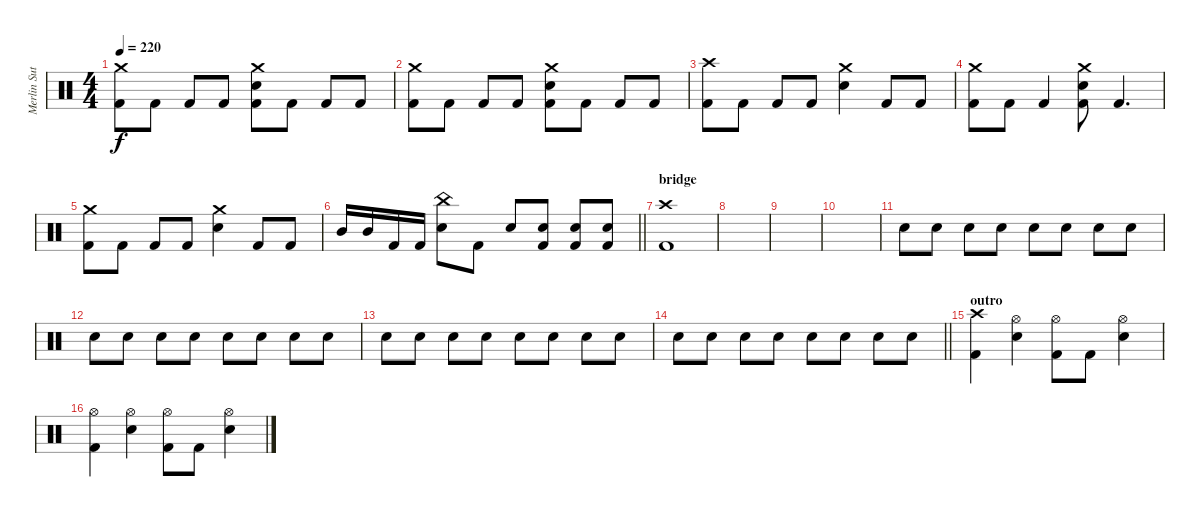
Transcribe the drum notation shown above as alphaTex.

\track ("Merlin Sutter" "Merlin Sut") {instrument percussion}
\staff {score}
\articulation defaults
\ts (4 4)
\tempo 220
\clef neutral
\ks c
("Crash medium (hit)" "Kick (hit) 2").8{dy f} "Kick (hit) 2".8 "Kick (hit) 2".8 "Kick (hit) 2".8 ("Crash medium (hit)" "Snare (hit) 2" "Kick (hit) 2").8 "Kick (hit) 2".8 "Kick (hit) 2".8 "Kick (hit) 2".8 |
("Crash medium (hit)" "Kick (hit) 2").8 "Kick (hit) 2".8 "Kick (hit) 2".8 "Kick (hit) 2".8 ("Crash medium (hit)" "Snare (hit) 2" "Kick (hit) 2").8 "Kick (hit) 2".8 "Kick (hit) 2".8 "Kick (hit) 2".8 |
("Crash high (hit)" "Kick (hit) 2").8 "Kick (hit) 2".8 "Kick (hit) 2".8 "Kick (hit) 2".8 ("Crash medium (hit)" "Snare (hit) 2").4 "Kick (hit) 2".8 "Kick (hit) 2".8 |
("Crash medium (hit)" "Kick (hit) 2").8 "Kick (hit) 2".8 "Kick (hit) 2".4 ("Crash medium (hit)" "Snare (hit) 2" "Kick (hit) 2").8 "Kick (hit) 2".4{d} |
("Crash medium (hit)" "Kick (hit) 2").8 "Kick (hit) 2".8 "Kick (hit) 2".8 "Kick (hit) 2".8 ("Crash medium (hit)" "Snare (hit) 2").4 "Kick (hit) 2".8 "Kick (hit) 2".8 |
\barLineRight lightlight "Mid Tom (hit)".16 "Mid Tom (hit)".16 "Kick (hit) 2".16 "Kick (hit) 2".16
("China (hit)" "Snare (hit) 2").8 "Kick (hit) 2".8 "Snare (hit) 2".8 ("Snare (hit) 2" "Kick (hit) 2").8 ("Snare (hit) 2" "Kick (hit) 2").8 ("Snare (hit) 2" "Kick (hit) 2").8 |
\section ("" "bridge")
("Crash high (hit)" "Kick (hit) 2").1 |
|
|
|
"Snare (hit) 2".8{volume 16} "Snare (hit) 2".8 "Snare (hit) 2".8 "Snare (hit) 2".8 "Snare (hit) 2".8 "Snare (hit) 2".8 "Snare (hit) 2".8 "Snare (hit) 2".8 |
"Snare (hit) 2".8 "Snare (hit) 2".8 "Snare (hit) 2".8 "Snare (hit) 2".8 "Snare (hit) 2".8 "Snare (hit) 2".8 "Snare (hit) 2".8 "Snare (hit) 2".8 |
"Snare (hit) 2".8 "Snare (hit) 2".8 "Snare (hit) 2".8 "Snare (hit) 2".8 "Snare (hit) 2".8 "Snare (hit) 2".8 "Snare (hit) 2".8 "Snare (hit) 2".8 |
\barLineRight lightlight "Snare (hit) 2".8 "Snare (hit) 2".8 "Snare (hit) 2".8 "Snare (hit) 2".8 "Snare (hit) 2".8 "Snare (hit) 2".8 "Snare (hit) 2".8 "Snare (hit) 2".8
|
\section ("" "outro")
("Crash high (hit)" "Kick (hit) 2").4 ("Hi-Hat (open)" "Snare (hit) 2").4 ("Hi-Hat (open)" "Kick (hit) 2").8 "Kick (hit) 2".8 ("Hi-Hat (open)" "Snare (hit) 2").4 |
("Hi-Hat (open)" "Kick (hit) 2").4 ("Hi-Hat (open)" "Snare (hit) 2").4 ("Hi-Hat (open)" "Kick (hit) 2").8 "Kick (hit) 2".8 ("Hi-Hat (open)" "Snare (hit) 2").4
